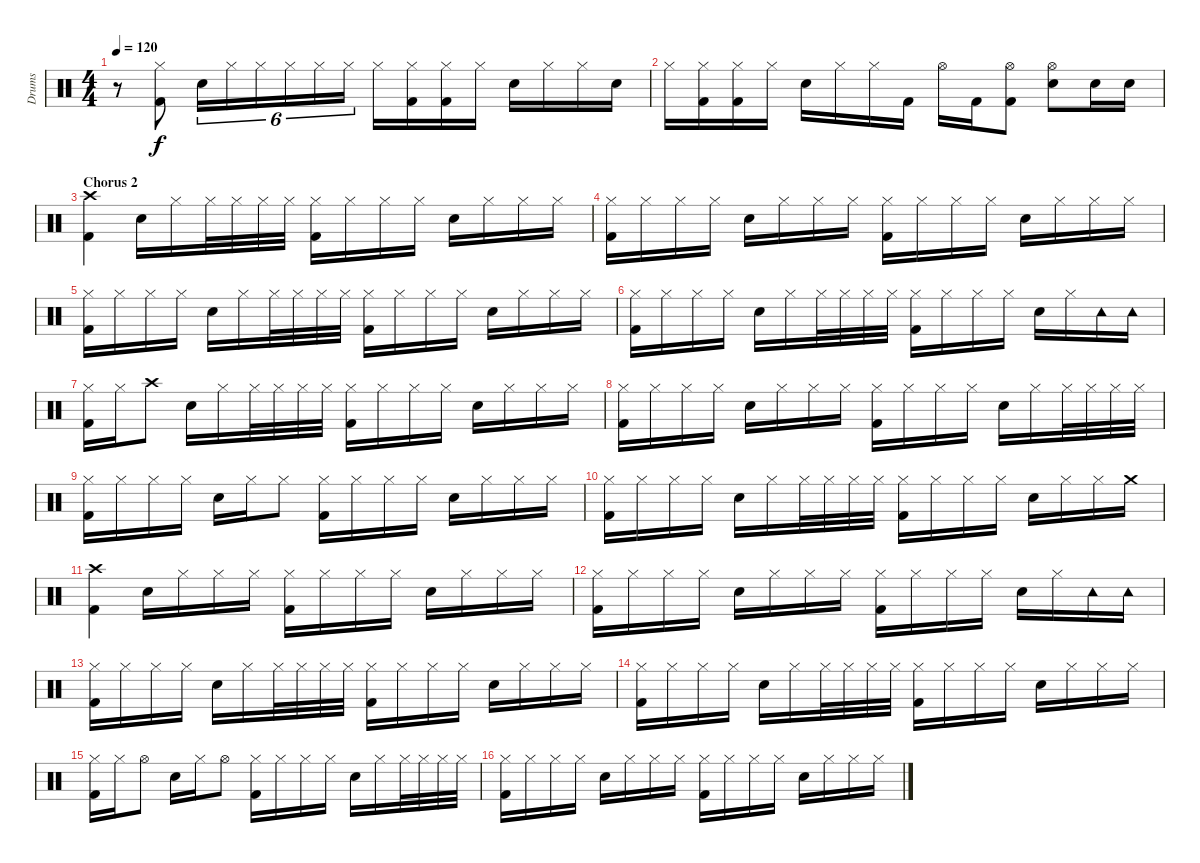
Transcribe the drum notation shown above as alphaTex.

\track ("Drums" "Drums") {instrument percussion}
\staff {score}
\articulation defaults
\ts (4 4)
\tempo 120
\clef neutral
\ks c
r.8{dy f} ("Hi-Hat (closed)" "Kick (hit) 2").8 "Electric Snare (hit)".16{tu (6 4)} "Hi-Hat (closed)".16{tu (6 4)} "Hi-Hat (closed)".16{tu (6 4)} "Hi-Hat (closed)".16{tu (6 4)} "Hi-Hat (closed)".16{tu (6 4)} "Hi-Hat (closed)".16{tu (6 4)} "Hi-Hat (closed)".16 ("Hi-Hat (closed)" "Kick (hit) 2").16 ("Hi-Hat (closed)" "Kick (hit) 2").16 "Hi-Hat (closed)".16 "Electric Snare (hit)".16 "Hi-Hat (closed)".16 "Hi-Hat (closed)".16 "Electric Snare (hit)".16 |
"Hi-Hat (closed)".16 ("Hi-Hat (closed)" "Kick (hit) 2").16 ("Hi-Hat (closed)" "Kick (hit) 2").16 "Hi-Hat (closed)".16 "Electric Snare (hit)".16 "Hi-Hat (closed)".16 "Hi-Hat (closed)".16 "Kick (hit) 2".16 "Hi-Hat (open)".16 "Kick (hit) 2".16 ("Hi-Hat (open)" "Kick (hit) 2").8 ("Hi-Hat (open)" "Electric Snare (hit)").8 "Electric Snare (hit)".16 "Electric Snare (hit)".16 |
\section ("" "Chorus 2")
("Crash high (hit)" "Kick (hit) 2").4 "Electric Snare (hit)".16 "Hi-Hat (closed)".16 "Hi-Hat (closed)".32 "Hi-Hat (closed)".32 "Hi-Hat (closed)".32 "Hi-Hat (closed)".32 ("Hi-Hat (closed)" "Kick (hit) 2").16 "Hi-Hat (closed)".16 "Hi-Hat (closed)".16 "Hi-Hat (closed)".16 "Electric Snare (hit)".16 "Hi-Hat (closed)".16 "Hi-Hat (closed)".16 "Hi-Hat (closed)".16 |
("Hi-Hat (closed)" "Kick (hit) 2").16 "Hi-Hat (closed)".16 "Hi-Hat (closed)".16 "Hi-Hat (closed)".16 "Electric Snare (hit)".16 "Hi-Hat (closed)".16 "Hi-Hat (closed)".16 "Hi-Hat (closed)".16 ("Hi-Hat (closed)" "Kick (hit) 2").16 "Hi-Hat (closed)".16 "Hi-Hat (closed)".16 "Hi-Hat (closed)".16 "Electric Snare (hit)".16 "Hi-Hat (closed)".16 "Hi-Hat (closed)".16 "Hi-Hat (closed)".16 |
("Hi-Hat (closed)" "Kick (hit) 2").16 "Hi-Hat (closed)".16 "Hi-Hat (closed)".16 "Hi-Hat (closed)".16 "Electric Snare (hit)".16 "Hi-Hat (closed)".16 "Hi-Hat (closed)".32 "Hi-Hat (closed)".32 "Hi-Hat (closed)".32 "Hi-Hat (closed)".32 ("Hi-Hat (closed)" "Kick (hit) 2").16 "Hi-Hat (closed)".16 "Hi-Hat (closed)".16 "Hi-Hat (closed)".16 "Electric Snare (hit)".16 "Hi-Hat (closed)".16 "Hi-Hat (closed)".16 "Hi-Hat (closed)".16 |
("Hi-Hat (closed)" "Kick (hit) 2").16 "Hi-Hat (closed)".16 "Hi-Hat (closed)".16 "Hi-Hat (closed)".16 "Electric Snare (hit)".16 "Hi-Hat (closed)".16 "Hi-Hat (closed)".32 "Hi-Hat (closed)".32 "Hi-Hat (closed)".32 "Hi-Hat (closed)".32 ("Hi-Hat (closed)" "Kick (hit) 2").16 "Hi-Hat (closed)".16 "Hi-Hat (closed)".16 "Hi-Hat (closed)".16 "Electric Snare (hit)".16 "Hi-Hat (closed)".16 "Tambourine (hit)".16 "Tambourine (hit)".16 |
("Hi-Hat (closed)" "Kick (hit) 2").16 "Hi-Hat (closed)".16 "Crash high (hit)".8 "Electric Snare (hit)".16 "Hi-Hat (closed)".16 "Hi-Hat (closed)".32 "Hi-Hat (closed)".32 "Hi-Hat (closed)".32 "Hi-Hat (closed)".32 ("Hi-Hat (closed)" "Kick (hit) 2").16 "Hi-Hat (closed)".16 "Hi-Hat (closed)".16 "Hi-Hat (closed)".16 "Electric Snare (hit)".16 "Hi-Hat (closed)".16 "Hi-Hat (closed)".16 "Hi-Hat (closed)".16 |
("Hi-Hat (closed)" "Kick (hit) 2").16 "Hi-Hat (closed)".16 "Hi-Hat (closed)".16 "Hi-Hat (closed)".16 "Electric Snare (hit)".16 "Hi-Hat (closed)".16 "Hi-Hat (closed)".16 "Hi-Hat (closed)".16 ("Hi-Hat (closed)" "Kick (hit) 2").16 "Hi-Hat (closed)".16 "Hi-Hat (closed)".16 "Hi-Hat (closed)".16 "Electric Snare (hit)".16 "Hi-Hat (closed)".16 "Hi-Hat (closed)".32 "Hi-Hat (closed)".32 "Hi-Hat (closed)".32 "Hi-Hat (closed)".32 |
("Hi-Hat (closed)" "Kick (hit) 2").16 "Hi-Hat (closed)".16 "Hi-Hat (closed)".16 "Hi-Hat (closed)".16 "Electric Snare (hit)".16 "Hi-Hat (closed)".16 "Hi-Hat (closed)".8 ("Hi-Hat (closed)" "Kick (hit) 2").16 "Hi-Hat (closed)".16 "Hi-Hat (closed)".16 "Hi-Hat (closed)".16 "Electric Snare (hit)".16 "Hi-Hat (closed)".16 "Hi-Hat (closed)".16 "Hi-Hat (closed)".16 |
("Hi-Hat (closed)" "Kick (hit) 2").16 "Hi-Hat (closed)".16 "Hi-Hat (closed)".16 "Hi-Hat (closed)".16 "Electric Snare (hit)".16 "Hi-Hat (closed)".16 "Hi-Hat (closed)".32 "Hi-Hat (closed)".32 "Hi-Hat (closed)".32 "Hi-Hat (closed)".32 ("Hi-Hat (closed)" "Kick (hit) 2").16 "Hi-Hat (closed)".16 "Hi-Hat (closed)".16 "Hi-Hat (closed)".16 "Electric Snare (hit)".16 "Hi-Hat (closed)".16 "Hi-Hat (closed)".16 "Crash medium (hit)".16 |
("Crash high (hit)" "Kick (hit) 2").4 "Electric Snare (hit)".16 "Hi-Hat (closed)".16 "Hi-Hat (closed)".16 "Hi-Hat (closed)".16 ("Hi-Hat (closed)" "Kick (hit) 2").16 "Hi-Hat (closed)".16 "Hi-Hat (closed)".16 "Hi-Hat (closed)".16 "Electric Snare (hit)".16 "Hi-Hat (closed)".16 "Hi-Hat (closed)".16 "Hi-Hat (closed)".16 |
("Hi-Hat (closed)" "Kick (hit) 2").16 "Hi-Hat (closed)".16 "Hi-Hat (closed)".16 "Hi-Hat (closed)".16 "Electric Snare (hit)".16 "Hi-Hat (closed)".16 "Hi-Hat (closed)".16 "Hi-Hat (closed)".16 ("Hi-Hat (closed)" "Kick (hit) 2").16 "Hi-Hat (closed)".16 "Hi-Hat (closed)".16 "Hi-Hat (closed)".16 "Electric Snare (hit)".16 "Hi-Hat (closed)".16 "Tambourine (hit)".16 "Tambourine (hit)".16 |
("Hi-Hat (closed)" "Kick (hit) 2").16 "Hi-Hat (closed)".16 "Hi-Hat (closed)".16 "Hi-Hat (closed)".16 "Electric Snare (hit)".16 "Hi-Hat (closed)".16 "Hi-Hat (closed)".32 "Hi-Hat (closed)".32 "Hi-Hat (closed)".32 "Hi-Hat (closed)".32 ("Hi-Hat (closed)" "Kick (hit) 2").16 "Hi-Hat (closed)".16 "Hi-Hat (closed)".16 "Hi-Hat (closed)".16 "Electric Snare (hit)".16 "Hi-Hat (closed)".16 "Hi-Hat (closed)".16 "Hi-Hat (closed)".16 |
("Hi-Hat (closed)" "Kick (hit) 2").16 "Hi-Hat (closed)".16 "Hi-Hat (closed)".16 "Hi-Hat (closed)".16 "Electric Snare (hit)".16 "Hi-Hat (closed)".16 "Hi-Hat (closed)".32 "Hi-Hat (closed)".32 "Hi-Hat (closed)".32 "Hi-Hat (closed)".32 ("Hi-Hat (closed)" "Kick (hit) 2").16 "Hi-Hat (closed)".16 "Hi-Hat (closed)".16 "Hi-Hat (closed)".16 "Electric Snare (hit)".16 "Hi-Hat (closed)".16 "Hi-Hat (closed)".16 "Hi-Hat (closed)".16 |
("Hi-Hat (closed)" "Kick (hit) 2").16 "Hi-Hat (closed)".16 "Hi-Hat (open)".8 "Electric Snare (hit)".16 "Hi-Hat (closed)".16 "Hi-Hat (open)".8 ("Hi-Hat (closed)" "Kick (hit) 2").16 "Hi-Hat (closed)".16 "Hi-Hat (closed)".16 "Hi-Hat (closed)".16 "Electric Snare (hit)".16 "Hi-Hat (closed)".16 "Hi-Hat (closed)".32 "Hi-Hat (closed)".32 "Hi-Hat (closed)".32 "Hi-Hat (closed)".32 |
("Hi-Hat (closed)" "Kick (hit) 2").16 "Hi-Hat (closed)".16 "Hi-Hat (closed)".16 "Hi-Hat (closed)".16 "Electric Snare (hit)".16 "Hi-Hat (closed)".16 "Hi-Hat (closed)".16 "Hi-Hat (closed)".16 ("Hi-Hat (closed)" "Kick (hit) 2").16 "Hi-Hat (closed)".16 "Hi-Hat (closed)".16 "Hi-Hat (closed)".16 "Electric Snare (hit)".16 "Hi-Hat (closed)".16 "Hi-Hat (closed)".16 "Hi-Hat (closed)".16
